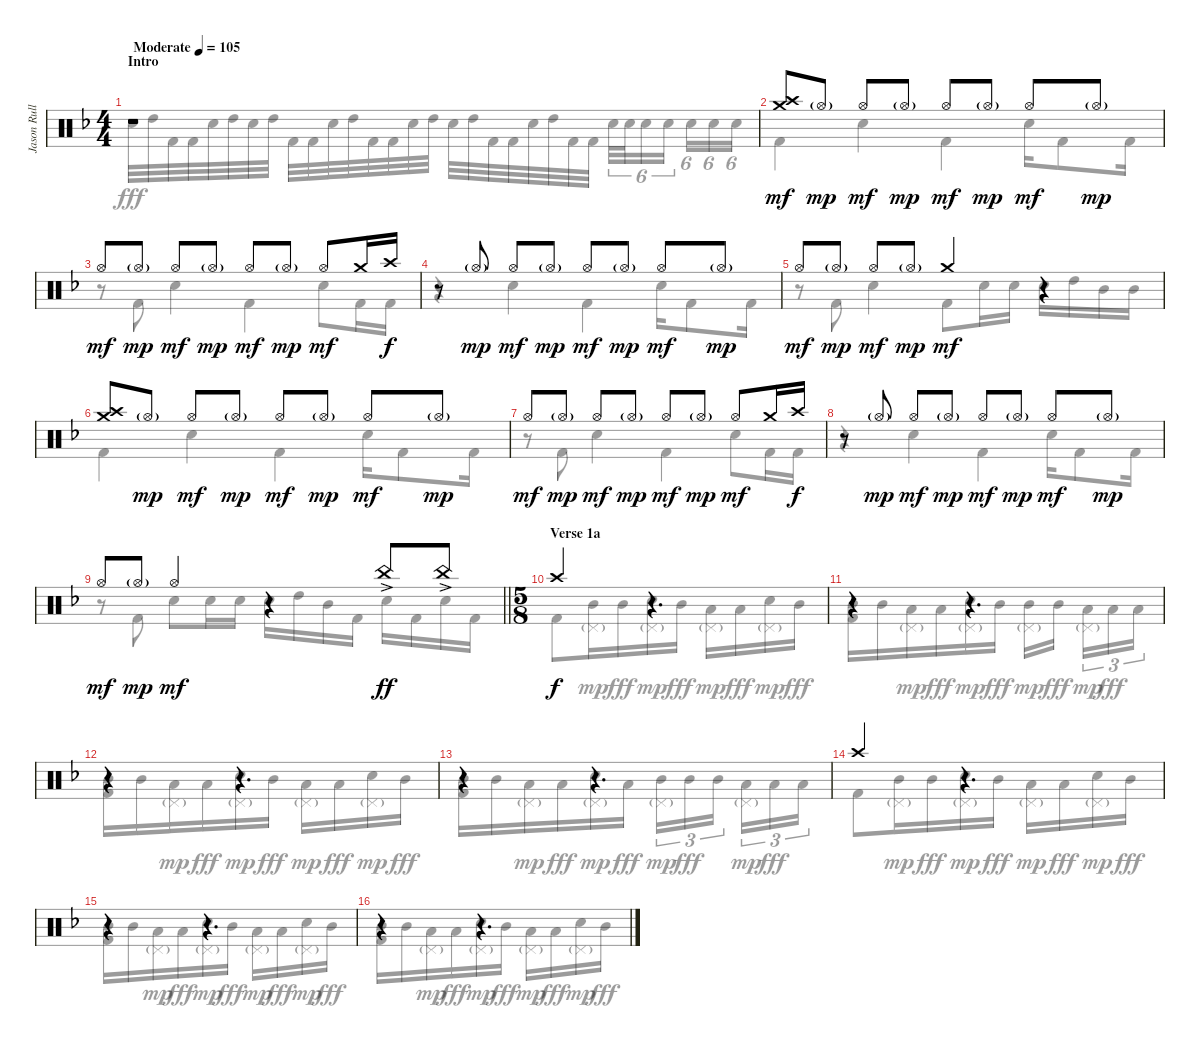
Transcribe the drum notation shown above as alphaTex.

\track ("Jason Rullo Drums" "Jason Rull") {instrument percussion}
\staff {score}
\articulation defaults
\voice
\ts (4 4)
\section ("" "Intro")
\tempo (105 "Moderate")
\clef neutral
\ks dminor
r.1{dy mf} |
("Crash high (hit)" "Crash medium (hit)").8 "Hi-Hat (open)"{g}.8{dy mp} "Hi-Hat (open)".8{dy mf} "Hi-Hat (open)"{g}.8{dy mp} "Hi-Hat (open)".8{dy mf} "Hi-Hat (open)"{g}.8{dy mp} "Hi-Hat (open)".8{dy mf} "Hi-Hat (open)"{g}.8{dy mp} |
"Hi-Hat (open)".8{dy mf} "Hi-Hat (open)"{g}.8{dy mp} "Hi-Hat (open)".8{dy mf} "Hi-Hat (open)"{g}.8{dy mp} "Hi-Hat (open)".8{dy mf} "Hi-Hat (open)"{g}.8{dy mp} "Hi-Hat (open)".8{dy mf} "Crash medium (hit)".16 "Crash high (hit)".16{dy f} |
r.8 "Hi-Hat (open)"{g}.8{dy mp} "Hi-Hat (open)".8{dy mf} "Hi-Hat (open)"{g}.8{dy mp} "Hi-Hat (open)".8{dy mf} "Hi-Hat (open)"{g}.8{dy mp} "Hi-Hat (open)".8{dy mf} "Hi-Hat (open)"{g}.8{dy mp} |
"Hi-Hat (open)".8{dy mf} "Hi-Hat (open)"{g}.8{dy mp} "Hi-Hat (open)".8{dy mf} "Hi-Hat (open)"{g}.8{dy mp} "Crash medium (hit)".4{dy mf} r.4 |
("Crash high (hit)" "Crash medium (hit)").8 "Hi-Hat (open)"{g}.8{dy mp} "Hi-Hat (open)".8{dy mf} "Hi-Hat (open)"{g}.8{dy mp} "Hi-Hat (open)".8{dy mf} "Hi-Hat (open)"{g}.8{dy mp} "Hi-Hat (open)".8{dy mf} "Hi-Hat (open)"{g}.8{dy mp} |
"Hi-Hat (open)".8{dy mf} "Hi-Hat (open)"{g}.8{dy mp} "Hi-Hat (open)".8{dy mf} "Hi-Hat (open)"{g}.8{dy mp} "Hi-Hat (open)".8{dy mf} "Hi-Hat (open)"{g}.8{dy mp} "Hi-Hat (open)".8{dy mf} "Crash medium (hit)".16 "Crash high (hit)".16{dy f} |
r.8 "Hi-Hat (open)"{g}.8{dy mp} "Hi-Hat (open)".8{dy mf} "Hi-Hat (open)"{g}.8{dy mp} "Hi-Hat (open)".8{dy mf} "Hi-Hat (open)"{g}.8{dy mp} "Hi-Hat (open)".8{dy mf} "Hi-Hat (open)"{g}.8{dy mp} |
\barLineRight lightlight "Hi-Hat (open)".8{dy mf} "Hi-Hat (open)"{g}.8{dy mp} "Hi-Hat (open)".4{dy mf}
r.4 "China (hit)"{ac}.8{dy ff} "China (hit)"{ac}.8 |
\ts (5 8)
\section ("" "Verse 1a")
"Crash high (hit)".4{dy f} r.4{d} |
r.4 r.4{d} |
r.4 r.4{d} |
r.4 r.4{d} |
"Crash high (hit)".4 r.4{d} |
r.4 r.4{d} |
r.4 r.4{d}
\voice
\clef neutral
\ottava regular
\simile none
\ks dminor "Electric Snare (hit)".32{dy fff} "High Tom (hit)".32 "Kick (hit) 2".32 "Kick (hit) 2".32 "Electric Snare (hit)".32 "High Tom (hit)".32 "Electric Snare (hit)".32 "High Tom (hit)".32 "Kick (hit) 2".32 "Kick (hit) 2".32 "Electric Snare (hit)".32 "High Tom (hit)".32 "Kick (hit) 2".32 "Kick (hit) 2".32 "Electric Snare (hit)".32 "High Tom (hit)".32 "Electric Snare (hit)".32 "High Tom (hit)".32 "Kick (hit) 2".32 "Kick (hit) 2".32 "Electric Snare (hit)".32 "High Tom (hit)".32 "Kick (hit) 2".32 "Kick (hit) 2".32 "Electric Snare (hit)".32{tu (6 4)} "Electric Snare (hit)".32{tu (6 4)} "Electric Snare (hit)".16{tu (6 4)} "Electric Snare (hit)".16{tu (6 4)} "Electric Snare (hit)".16{tu (6 4)} "Electric Snare (hit)".16{tu (6 4)} "Electric Snare (hit)".16{tu (6 4)}
|
"Kick (hit) 2".4 "Electric Snare (hit)".4 "Kick (hit) 2".4 "Electric Snare (hit)".16 "Kick (hit) 2".8 "Kick (hit) 2".16 |
r.8 "Kick (hit) 2".8 "Electric Snare (hit)".4 "Kick (hit) 2".4 "Electric Snare (hit)".8 "Kick (hit) 2".16 "Kick (hit) 2".16 |
r.4 "Electric Snare (hit)".4 "Kick (hit) 2".4 "Electric Snare (hit)".16 "Kick (hit) 2".8 "Kick (hit) 2".16 |
r.8 "Kick (hit) 2".8 "Electric Snare (hit)".4 "Kick (hit) 2".8 "Electric Snare (hit)".16 "Electric Snare (hit)".16 "Electric Snare (hit)".16 "High Tom (hit)".16 "Mid Tom (hit)".16 "Mid Tom (hit)".16 |
"Kick (hit) 2".4 "Electric Snare (hit)".4 "Kick (hit) 2".4 "Electric Snare (hit)".16 "Kick (hit) 2".8 "Kick (hit) 2".16 |
r.8 "Kick (hit) 2".8 "Electric Snare (hit)".4 "Kick (hit) 2".4 "Electric Snare (hit)".8 "Kick (hit) 2".16 "Kick (hit) 2".16 |
r.4 "Electric Snare (hit)".4 "Kick (hit) 2".4 "Electric Snare (hit)".16 "Kick (hit) 2".8 "Kick (hit) 2".16 |
\barLineRight lightlight
r.8 "Kick (hit) 2".8 "Electric Snare (hit)".8 "Electric Snare (hit)".16 "Electric Snare (hit)".16 "Electric Snare (hit)".16 "High Tom (hit)".16 "Mid Tom (hit)".16 "Kick (hit) 2".16 "Electric Snare (hit)".16 "Kick (hit) 2".16 "Electric Snare (hit)".16 "Kick (hit) 2".16 |
"Kick (hit) 2".8 ("Mid Tom (hit)" "Pedal Hi-Hat (hit)"{g}).16{dy mp} "Mid Tom (hit)".16{dy fff} ("Electric Snare (hit)" "Pedal Hi-Hat (hit)"{g}).16{dy mp} "Mid Tom (hit)".16{dy fff} ("Low Tom (hit)" "Pedal Hi-Hat (hit)"{g}).16{dy mp} "Low Tom (hit)".16{dy fff} ("Electric Snare (hit)" "Pedal Hi-Hat (hit)"{g}).16{dy mp} "Mid Tom (hit)".16{dy fff} |
("Mid Tom (hit)" "Kick (hit) 2").16 "Mid Tom (hit)".16 ("Low Tom (hit)" "Pedal Hi-Hat (hit)"{g}).16{dy mp} "Low Tom (hit)".16{dy fff} ("Electric Snare (hit)" "Pedal Hi-Hat (hit)"{g}).16{dy mp} "Mid Tom (hit)".16{dy fff} ("Mid Tom (hit)" "Pedal Hi-Hat (hit)"{g}).16{dy mp} "Mid Tom (hit)".16{dy fff} ("Low Tom (hit)" "Pedal Hi-Hat (hit)"{g}).16{tu (3 2) dy mp} "Low Tom (hit)".16{tu (3 2) dy fff} "Low Tom (hit)".16{tu (3 2)} |
("Mid Tom (hit)" "Kick (hit) 2").16 "Mid Tom (hit)".16 ("Low Tom (hit)" "Pedal Hi-Hat (hit)"{g}).16{dy mp} "Low Tom (hit)".16{dy fff} ("Electric Snare (hit)" "Pedal Hi-Hat (hit)"{g}).16{dy mp} "Mid Tom (hit)".16{dy fff} ("Low Tom (hit)" "Pedal Hi-Hat (hit)"{g}).16{dy mp} "Low Tom (hit)".16{dy fff} ("Electric Snare (hit)" "Pedal Hi-Hat (hit)"{g}).16{dy mp} "Mid Tom (hit)".16{dy fff} |
("Mid Tom (hit)" "Kick (hit) 2").16 "Mid Tom (hit)".16 ("Low Tom (hit)" "Pedal Hi-Hat (hit)"{g}).16{dy mp} "Low Tom (hit)".16{dy fff} ("Electric Snare (hit)" "Pedal Hi-Hat (hit)"{g}).16{dy mp} "Low Tom (hit)".16{dy fff} ("Mid Tom (hit)" "Pedal Hi-Hat (hit)"{g}).16{tu (3 2) dy mp} "Mid Tom (hit)".16{tu (3 2) dy fff} "Mid Tom (hit)".16{tu (3 2)} ("Low Tom (hit)" "Pedal Hi-Hat (hit)"{g}).16{tu (3 2) dy mp} "Low Tom (hit)".16{tu (3 2) dy fff} "Low Tom (hit)".16{tu (3 2)} |
"Kick (hit) 2".8 ("Mid Tom (hit)" "Pedal Hi-Hat (hit)"{g}).16{dy mp} "Mid Tom (hit)".16{dy fff} ("Electric Snare (hit)" "Pedal Hi-Hat (hit)"{g}).16{dy mp} "Mid Tom (hit)".16{dy fff} ("Low Tom (hit)" "Pedal Hi-Hat (hit)"{g}).16{dy mp} "Low Tom (hit)".16{dy fff} ("Electric Snare (hit)" "Pedal Hi-Hat (hit)"{g}).16{dy mp} "Mid Tom (hit)".16{dy fff} |
("Mid Tom (hit)" "Kick (hit) 2").16 "Mid Tom (hit)".16 ("Low Tom (hit)" "Pedal Hi-Hat (hit)"{g}).16{dy mp} "Low Tom (hit)".16{dy fff} ("Electric Snare (hit)" "Pedal Hi-Hat (hit)"{g}).16{dy mp} "Mid Tom (hit)".16{dy fff} ("Low Tom (hit)" "Pedal Hi-Hat (hit)"{g}).16{dy mp} "Low Tom (hit)".16{dy fff} ("Electric Snare (hit)" "Pedal Hi-Hat (hit)"{g}).16{dy mp} "Mid Tom (hit)".16{dy fff} |
("Mid Tom (hit)" "Kick (hit) 2").16 "Mid Tom (hit)".16 ("Low Tom (hit)" "Pedal Hi-Hat (hit)"{g}).16{dy mp} "Low Tom (hit)".16{dy fff} ("Electric Snare (hit)" "Pedal Hi-Hat (hit)"{g}).16{dy mp} "Mid Tom (hit)".16{dy fff} ("Low Tom (hit)" "Pedal Hi-Hat (hit)"{g}).16{dy mp} "Low Tom (hit)".16{dy fff} ("Electric Snare (hit)" "Pedal Hi-Hat (hit)"{g}).16{dy mp} "Mid Tom (hit)".16{dy fff}
